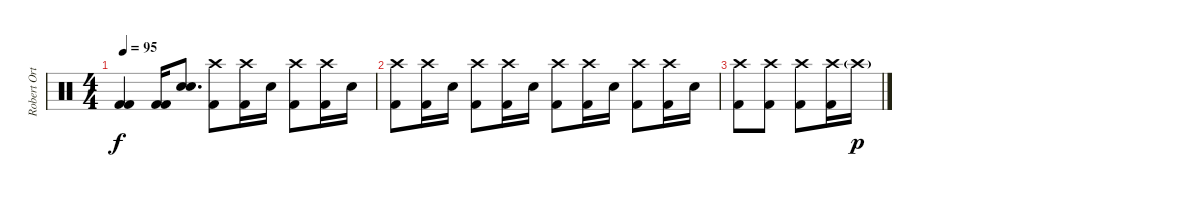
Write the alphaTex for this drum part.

\track ("Robert Ortiz (Drums)" "Robert Ort") {instrument percussion}
\staff {score}
\articulation defaults
\ts (4 4)
\tempo 95
\clef neutral
\ks c
("Kick (hit) 2" "Kick (hit) 2").4{dy f} ("Kick (hit) 2" "Kick (hit) 2").16 ("Electric Snare (hit)" "Electric Snare (hit)").8{d} ("Crash high (hit)" "Kick (hit) 2").8 ("Crash high (hit)" "Kick (hit) 2").16 "Electric Snare (hit)".16 ("Crash high (hit)" "Kick (hit) 2").8 ("Crash high (hit)" "Kick (hit) 2").16 "Electric Snare (hit)".16 |
("Crash high (hit)" "Kick (hit) 2").8 ("Crash high (hit)" "Kick (hit) 2").16 "Electric Snare (hit)".16 ("Crash high (hit)" "Kick (hit) 2").8 ("Crash high (hit)" "Kick (hit) 2").16 "Electric Snare (hit)".16 ("Crash high (hit)" "Kick (hit) 2").8 ("Crash high (hit)" "Kick (hit) 2").16 "Electric Snare (hit)".16 ("Crash high (hit)" "Kick (hit) 2").8 ("Crash high (hit)" "Kick (hit) 2").16 "Electric Snare (hit)".16 |
("Crash high (hit)" "Kick (hit) 2").8 ("Crash high (hit)" "Kick (hit) 2").8 ("Crash high (hit)" "Kick (hit) 2").8 ("Crash high (hit)" "Kick (hit) 2").16 "Crash high (hit)"{g}.16{dy p}
